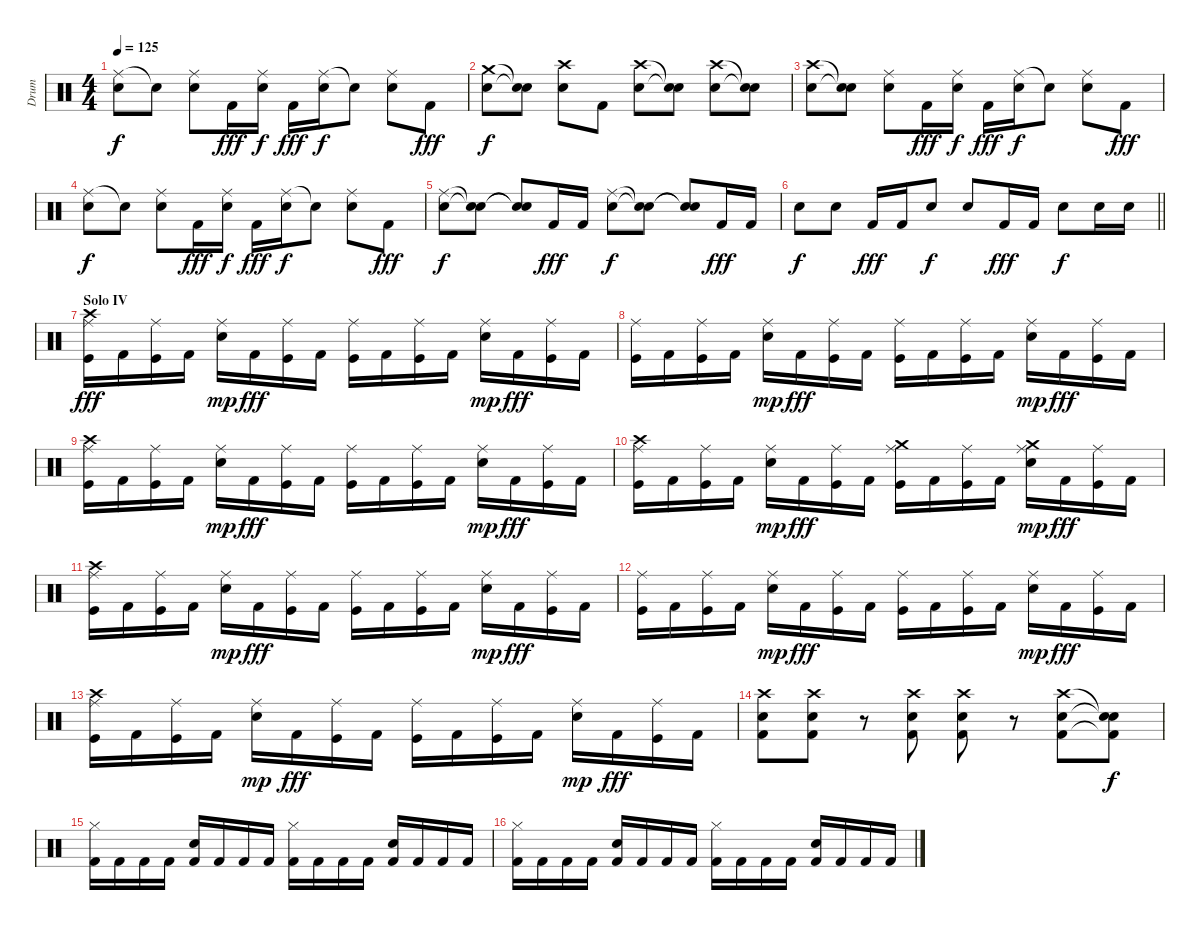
\track ("Drum" "Drum") {instrument percussion}
\staff {score}
\articulation defaults
\ts (4 4)
\tempo 125
\clef neutral
\ks c
("Ride (middle)" "Snare (hit) 2").8{dy f} "Snare (hit)"{t}.8 ("Ride (middle)" "Electric Snare (hit)").8 "Kick (hit) 2".16{dy fff} ("Ride (middle)" "Snare (hit) 2").16{dy f} "Kick (hit) 2".16{dy fff} ("Ride (middle)" "Snare (hit) 2").16{dy f} "Snare (hit)"{t}.8 ("Ride (middle)" "Electric Snare (hit)").8 "Kick (hit) 2".8{dy fff} |
("Crash medium (hit)" "Snare (hit) 2").8{dy f} ("Snare (hit)"{t} "Snare (hit)"{t}).8 ("Crash high (hit)" "Electric Snare (hit)").8 "Kick (hit) 2".8 ("Crash high (hit)" "Snare (hit) 2").8 ("Snare (hit)"{t} "Snare (hit)"{t}).8 ("Crash high (hit)" "Electric Snare (hit)").8 ("Snare (hit)"{t} "Snare (hit)"{t}).8 |
("Crash high (hit)" "Snare (hit) 2").8 ("Snare (hit)"{t} "Snare (hit)"{t}).8 ("Ride (middle)" "Electric Snare (hit)").8 "Kick (hit) 2".16{dy fff} ("Ride (middle)" "Snare (hit) 2").16{dy f} "Kick (hit) 2".16{dy fff} ("Ride (middle)" "Snare (hit) 2").16{dy f} "Snare (hit)"{t}.8 ("Ride (middle)" "Electric Snare (hit)").8 "Kick (hit) 2".8{dy fff} |
("Ride (middle)" "Snare (hit) 2").8{dy f} "Snare (hit)"{t}.8 ("Ride (middle)" "Electric Snare (hit)").8 "Kick (hit) 2".16{dy fff} ("Ride (middle)" "Snare (hit) 2").16{dy f} "Kick (hit) 2".16{dy fff} ("Ride (middle)" "Snare (hit) 2").16{dy f} "Snare (hit)"{t}.8 ("Ride (middle)" "Electric Snare (hit)").8 "Kick (hit) 2".8{dy fff} |
("Ride (middle)" "Snare (hit) 2").8{dy f} ("Snare (hit)"{t} "Snare (hit)"{t}).8 ("Snare (hit)"{t} "Snare (hit)"{t}).8 "Kick (hit) 2".16{dy fff} "Kick (hit) 2".16 ("Ride (middle)" "Electric Snare (hit)").8{dy f} ("Snare (hit)"{t} "Snare (hit)"{t}).8 ("Snare (hit)"{t} "Snare (hit)"{t}).8 "Kick (hit) 2".16{dy fff} "Kick (hit) 2".16 |
\barLineRight lightlight "Electric Snare (hit)".8{dy f} "Electric Snare (hit)".8 "Kick (hit) 2".16{dy fff} "Kick (hit) 2".16 "Electric Snare (hit)".8{dy f} "Electric Snare (hit)".8 "Kick (hit) 2".16{dy fff} "Kick (hit) 2".16 "Electric Snare (hit)".8{dy f} "Electric Snare (hit)".16 "Electric Snare (hit)".16
|
\section ("" "Solo IV")
("Crash high (hit)" "Ride (middle)" "Kick (hit)").16{dy fff} "Kick (hit) 2".16 ("Ride (middle)" "Kick (hit)").16 "Kick (hit) 2".16 ("Ride (middle)" "Electric Snare (hit)").16{dy mp} "Kick (hit) 2".16{dy fff} ("Ride (middle)" "Kick (hit)").16 "Kick (hit) 2".16 ("Ride (middle)" "Kick (hit)").16 "Kick (hit) 2".16 ("Ride (middle)" "Kick (hit)").16 "Kick (hit) 2".16 ("Ride (middle)" "Electric Snare (hit)").16{dy mp} "Kick (hit) 2".16{dy fff} ("Ride (middle)" "Kick (hit)").16 "Kick (hit) 2".16 |
("Ride (middle)" "Kick (hit)").16 "Kick (hit) 2".16 ("Ride (middle)" "Kick (hit)").16 "Kick (hit) 2".16 ("Ride (middle)" "Electric Snare (hit)").16{dy mp} "Kick (hit) 2".16{dy fff} ("Ride (middle)" "Kick (hit)").16 "Kick (hit) 2".16 ("Ride (middle)" "Kick (hit)").16 "Kick (hit) 2".16 ("Ride (middle)" "Kick (hit)").16 "Kick (hit) 2".16 ("Ride (middle)" "Electric Snare (hit)").16{dy mp} "Kick (hit) 2".16{dy fff} ("Ride (middle)" "Kick (hit)").16 "Kick (hit) 2".16 |
("Crash high (hit)" "Ride (middle)" "Kick (hit)").16 "Kick (hit) 2".16 ("Ride (middle)" "Kick (hit)").16 "Kick (hit) 2".16 ("Ride (middle)" "Electric Snare (hit)").16{dy mp} "Kick (hit) 2".16{dy fff} ("Ride (middle)" "Kick (hit)").16 "Kick (hit) 2".16 ("Ride (middle)" "Kick (hit)").16 "Kick (hit) 2".16 ("Ride (middle)" "Kick (hit)").16 "Kick (hit) 2".16 ("Ride (middle)" "Electric Snare (hit)").16{dy mp} "Kick (hit) 2".16{dy fff} ("Ride (middle)" "Kick (hit)").16 "Kick (hit) 2".16 |
("Crash high (hit)" "Ride (middle)" "Kick (hit)").16 "Kick (hit) 2".16 ("Ride (middle)" "Kick (hit)").16 "Kick (hit) 2".16 ("Ride (middle)" "Electric Snare (hit)").16{dy mp} "Kick (hit) 2".16{dy fff} ("Ride (middle)" "Kick (hit)").16 "Kick (hit) 2".16 ("Crash medium (hit)" "Ride (middle)" "Kick (hit)").16 "Kick (hit) 2".16 ("Ride (middle)" "Kick (hit)").16 "Kick (hit) 2".16 ("Crash medium (hit)" "Ride (middle)" "Electric Snare (hit)").16{dy mp} "Kick (hit) 2".16{dy fff} ("Ride (middle)" "Kick (hit)").16 "Kick (hit) 2".16 |
("Crash high (hit)" "Ride (middle)" "Kick (hit)").16 "Kick (hit) 2".16 ("Ride (middle)" "Kick (hit)").16 "Kick (hit) 2".16 ("Ride (middle)" "Electric Snare (hit)").16{dy mp} "Kick (hit) 2".16{dy fff} ("Ride (middle)" "Kick (hit)").16 "Kick (hit) 2".16 ("Ride (middle)" "Kick (hit)").16 "Kick (hit) 2".16 ("Ride (middle)" "Kick (hit)").16 "Kick (hit) 2".16 ("Ride (middle)" "Electric Snare (hit)").16{dy mp} "Kick (hit) 2".16{dy fff} ("Ride (middle)" "Kick (hit)").16 "Kick (hit) 2".16 |
("Ride (middle)" "Kick (hit)").16 "Kick (hit) 2".16 ("Ride (middle)" "Kick (hit)").16 "Kick (hit) 2".16 ("Ride (middle)" "Electric Snare (hit)").16{dy mp} "Kick (hit) 2".16{dy fff} ("Ride (middle)" "Kick (hit)").16 "Kick (hit) 2".16 ("Ride (middle)" "Kick (hit)").16 "Kick (hit) 2".16 ("Ride (middle)" "Kick (hit)").16 "Kick (hit) 2".16 ("Ride (middle)" "Electric Snare (hit)").16{dy mp} "Kick (hit) 2".16{dy fff} ("Ride (middle)" "Kick (hit)").16 "Kick (hit) 2".16 |
("Crash high (hit)" "Ride (middle)" "Kick (hit)").16 "Kick (hit) 2".16 ("Ride (middle)" "Kick (hit)").16 "Kick (hit) 2".16 ("Ride (middle)" "Electric Snare (hit)").16{dy mp} "Kick (hit) 2".16{dy fff} ("Ride (middle)" "Kick (hit)").16 "Kick (hit) 2".16 ("Ride (middle)" "Kick (hit)").16 "Kick (hit) 2".16 ("Ride (middle)" "Kick (hit)").16 "Kick (hit) 2".16 ("Ride (middle)" "Electric Snare (hit)").16{dy mp} "Kick (hit) 2".16{dy fff} ("Ride (middle)" "Kick (hit)").16 "Kick (hit) 2".16 |
("Crash high (hit)" "Electric Snare (hit)" "Kick (hit) 2").8 ("Crash high (hit)" "Electric Snare (hit)" "Kick (hit) 2").8 r.8 ("Crash high (hit)" "Electric Snare (hit)" "Kick (hit) 2").8 ("Crash high (hit)" "Electric Snare (hit)" "Kick (hit) 2").8 r.8 ("Crash high (hit)" "Electric Snare (hit)" "Kick (hit) 2").8 ("Snare (hit)"{t} "Electric Snare (hit)"{t} "Kick (hit) 2"{t}).8{dy f} |
("Hi-Hat (closed)" "Kick (hit) 2").16 "Kick (hit) 2".16 "Kick (hit) 2".16 "Kick (hit) 2".16 ("Electric Snare (hit)" "Kick (hit) 2").16 "Kick (hit) 2".16 "Kick (hit) 2".16 "Kick (hit) 2".16 ("Hi-Hat (closed)" "Kick (hit) 2").16 "Kick (hit) 2".16 "Kick (hit) 2".16 "Kick (hit) 2".16 ("Electric Snare (hit)" "Kick (hit) 2").16 "Kick (hit) 2".16 "Kick (hit) 2".16 "Kick (hit) 2".16 |
("Hi-Hat (closed)" "Kick (hit) 2").16 "Kick (hit) 2".16 "Kick (hit) 2".16 "Kick (hit) 2".16 ("Electric Snare (hit)" "Kick (hit) 2").16 "Kick (hit) 2".16 "Kick (hit) 2".16 "Kick (hit) 2".16 ("Hi-Hat (closed)" "Kick (hit) 2").16 "Kick (hit) 2".16 "Kick (hit) 2".16 "Kick (hit) 2".16 ("Electric Snare (hit)" "Kick (hit) 2").16 "Kick (hit) 2".16 "Kick (hit) 2".16 "Kick (hit) 2".16
